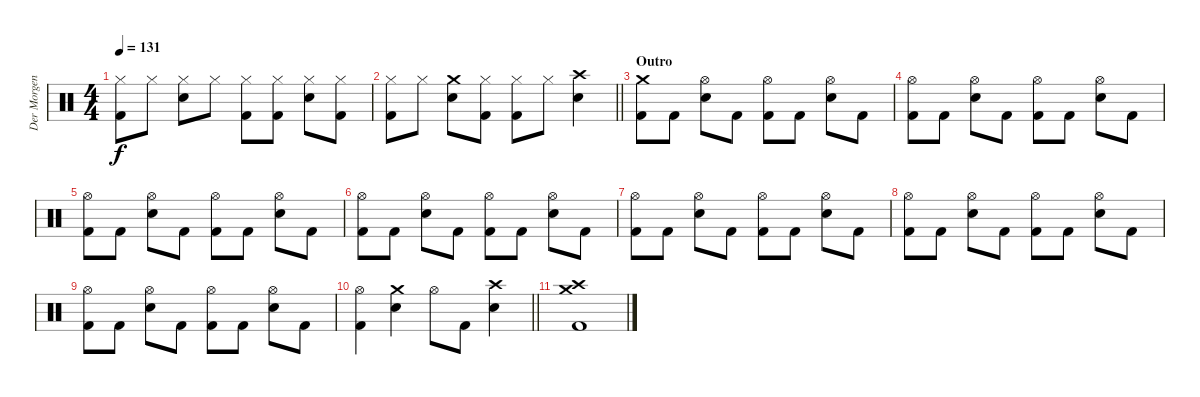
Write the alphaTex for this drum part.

\track ("Der Morgenstern" "Der Morgen") {instrument percussion}
\staff {score}
\articulation defaults
\ts (4 4)
\tempo 131
\clef neutral
\ks c
("Hi-Hat (closed)" "Kick (hit) 2").8{dy f} "Hi-Hat (closed)".8 ("Hi-Hat (closed)" "Electric Snare (hit)").8 "Hi-Hat (closed)".8 ("Hi-Hat (closed)" "Kick (hit) 2").8 ("Hi-Hat (closed)" "Kick (hit) 2").8 ("Hi-Hat (closed)" "Electric Snare (hit)").8 ("Hi-Hat (closed)" "Kick (hit) 2").8 |
\barLineRight lightlight
("Hi-Hat (closed)" "Kick (hit) 2").8 "Hi-Hat (closed)".8 ("Crash medium (hit)" "Electric Snare (hit)").8 ("Hi-Hat (closed)" "Kick (hit) 2").8 ("Hi-Hat (closed)" "Kick (hit) 2").8 "Hi-Hat (closed)".8 ("Crash high (hit)" "Electric Snare (hit)").4 |
\section ("" "Outro")
("Crash medium (hit)" "Kick (hit) 2").8 "Kick (hit) 2".8 ("Hi-Hat (open)" "Electric Snare (hit)").8 "Kick (hit) 2".8 ("Hi-Hat (open)" "Kick (hit) 2").8 "Kick (hit) 2".8 ("Hi-Hat (open)" "Electric Snare (hit)").8 "Kick (hit) 2".8 |
("Hi-Hat (open)" "Kick (hit) 2").8 "Kick (hit) 2".8 ("Hi-Hat (open)" "Electric Snare (hit)").8 "Kick (hit) 2".8 ("Hi-Hat (open)" "Kick (hit) 2").8 "Kick (hit) 2".8 ("Hi-Hat (open)" "Electric Snare (hit)").8 "Kick (hit) 2".8 |
("Hi-Hat (open)" "Kick (hit) 2").8 "Kick (hit) 2".8 ("Hi-Hat (open)" "Electric Snare (hit)").8 "Kick (hit) 2".8 ("Hi-Hat (open)" "Kick (hit) 2").8 "Kick (hit) 2".8 ("Hi-Hat (open)" "Electric Snare (hit)").8 "Kick (hit) 2".8 |
("Hi-Hat (open)" "Kick (hit) 2").8 "Kick (hit) 2".8 ("Hi-Hat (open)" "Electric Snare (hit)").8 "Kick (hit) 2".8 ("Hi-Hat (open)" "Kick (hit) 2").8 "Kick (hit) 2".8 ("Hi-Hat (open)" "Electric Snare (hit)").8 "Kick (hit) 2".8 |
("Hi-Hat (open)" "Kick (hit) 2").8 "Kick (hit) 2".8 ("Hi-Hat (open)" "Electric Snare (hit)").8 "Kick (hit) 2".8 ("Hi-Hat (open)" "Kick (hit) 2").8 "Kick (hit) 2".8 ("Hi-Hat (open)" "Electric Snare (hit)").8 "Kick (hit) 2".8 |
("Hi-Hat (open)" "Kick (hit) 2").8 "Kick (hit) 2".8 ("Hi-Hat (open)" "Electric Snare (hit)").8 "Kick (hit) 2".8 ("Hi-Hat (open)" "Kick (hit) 2").8 "Kick (hit) 2".8 ("Hi-Hat (open)" "Electric Snare (hit)").8 "Kick (hit) 2".8 |
("Hi-Hat (open)" "Kick (hit) 2").8 "Kick (hit) 2".8 ("Hi-Hat (open)" "Electric Snare (hit)").8 "Kick (hit) 2".8 ("Hi-Hat (open)" "Kick (hit) 2").8 "Kick (hit) 2".8 ("Hi-Hat (open)" "Electric Snare (hit)").8 "Kick (hit) 2".8 |
\barLineRight lightlight
("Hi-Hat (open)" "Kick (hit) 2").4 ("Crash medium (hit)" "Electric Snare (hit)").4 "Hi-Hat (open)".8 "Kick (hit) 2".8 ("Crash high (hit)" "Electric Snare (hit)").4 |
("Crash high (hit)" "Crash medium (hit)" "Kick (hit) 2").1
